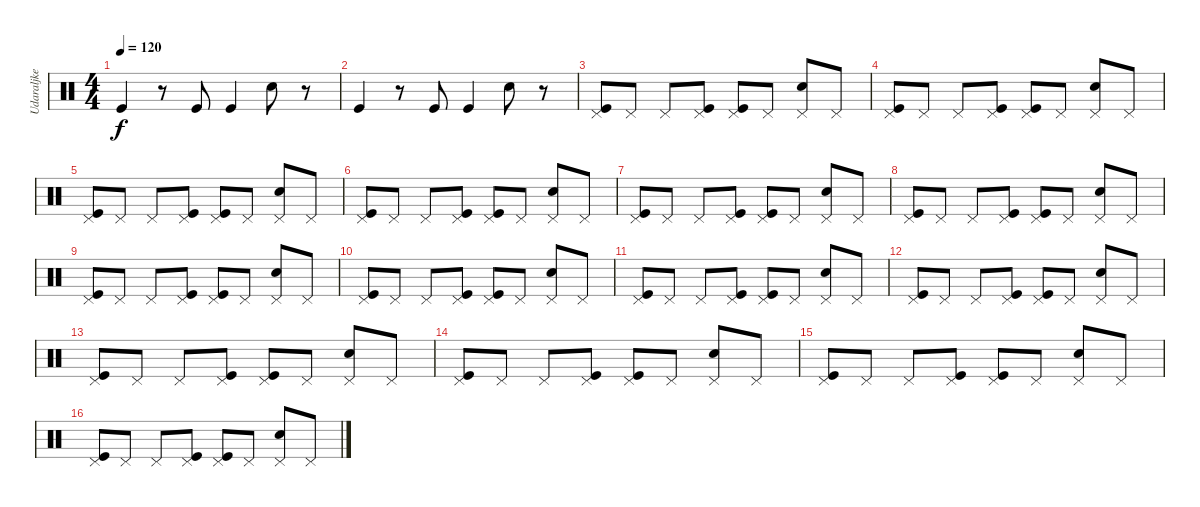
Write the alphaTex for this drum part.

\track ("Udaraljke" "Udaraljke") {instrument percussion}
\staff {score}
\articulation defaults
\ts (4 4)
\tempo 120
\clef neutral
\ks c "Kick (hit)".4{dy f}
r.8 "Kick (hit)".8 "Kick (hit)".4 "Snare (hit) 2".8 r.8 |
"Kick (hit)".4 r.8 "Kick (hit)".8 "Kick (hit)".4 "Snare (hit) 2".8 r.8 |
("Pedal Hi-Hat (hit)" "Kick (hit)").8 "Pedal Hi-Hat (hit)".8 "Pedal Hi-Hat (hit)".8 ("Pedal Hi-Hat (hit)" "Kick (hit)").8 ("Pedal Hi-Hat (hit)" "Kick (hit)").8 "Pedal Hi-Hat (hit)".8 ("Pedal Hi-Hat (hit)" "Snare (hit) 2").8 "Pedal Hi-Hat (hit)".8 |
("Pedal Hi-Hat (hit)" "Kick (hit)").8 "Pedal Hi-Hat (hit)".8 "Pedal Hi-Hat (hit)".8 ("Pedal Hi-Hat (hit)" "Kick (hit)").8 ("Pedal Hi-Hat (hit)" "Kick (hit)").8 "Pedal Hi-Hat (hit)".8 ("Pedal Hi-Hat (hit)" "Snare (hit) 2").8 "Pedal Hi-Hat (hit)".8 |
("Pedal Hi-Hat (hit)" "Kick (hit)").8 "Pedal Hi-Hat (hit)".8 "Pedal Hi-Hat (hit)".8 ("Pedal Hi-Hat (hit)" "Kick (hit)").8 ("Pedal Hi-Hat (hit)" "Kick (hit)").8 "Pedal Hi-Hat (hit)".8 ("Pedal Hi-Hat (hit)" "Snare (hit) 2").8 "Pedal Hi-Hat (hit)".8 |
("Pedal Hi-Hat (hit)" "Kick (hit)").8 "Pedal Hi-Hat (hit)".8 "Pedal Hi-Hat (hit)".8 ("Pedal Hi-Hat (hit)" "Kick (hit)").8 ("Pedal Hi-Hat (hit)" "Kick (hit)").8 "Pedal Hi-Hat (hit)".8 ("Pedal Hi-Hat (hit)" "Snare (hit) 2").8 "Pedal Hi-Hat (hit)".8 |
("Pedal Hi-Hat (hit)" "Kick (hit)").8 "Pedal Hi-Hat (hit)".8 "Pedal Hi-Hat (hit)".8 ("Pedal Hi-Hat (hit)" "Kick (hit)").8 ("Pedal Hi-Hat (hit)" "Kick (hit)").8 "Pedal Hi-Hat (hit)".8 ("Pedal Hi-Hat (hit)" "Snare (hit) 2").8 "Pedal Hi-Hat (hit)".8 |
("Pedal Hi-Hat (hit)" "Kick (hit)").8 "Pedal Hi-Hat (hit)".8 "Pedal Hi-Hat (hit)".8 ("Pedal Hi-Hat (hit)" "Kick (hit)").8 ("Pedal Hi-Hat (hit)" "Kick (hit)").8 "Pedal Hi-Hat (hit)".8 ("Pedal Hi-Hat (hit)" "Snare (hit) 2").8 "Pedal Hi-Hat (hit)".8 |
("Pedal Hi-Hat (hit)" "Kick (hit)").8 "Pedal Hi-Hat (hit)".8 "Pedal Hi-Hat (hit)".8 ("Pedal Hi-Hat (hit)" "Kick (hit)").8 ("Pedal Hi-Hat (hit)" "Kick (hit)").8 "Pedal Hi-Hat (hit)".8 ("Pedal Hi-Hat (hit)" "Snare (hit) 2").8 "Pedal Hi-Hat (hit)".8 |
("Pedal Hi-Hat (hit)" "Kick (hit)").8 "Pedal Hi-Hat (hit)".8 "Pedal Hi-Hat (hit)".8 ("Pedal Hi-Hat (hit)" "Kick (hit)").8 ("Pedal Hi-Hat (hit)" "Kick (hit)").8 "Pedal Hi-Hat (hit)".8 ("Pedal Hi-Hat (hit)" "Snare (hit) 2").8 "Pedal Hi-Hat (hit)".8 |
("Pedal Hi-Hat (hit)" "Kick (hit)").8 "Pedal Hi-Hat (hit)".8 "Pedal Hi-Hat (hit)".8 ("Pedal Hi-Hat (hit)" "Kick (hit)").8 ("Pedal Hi-Hat (hit)" "Kick (hit)").8 "Pedal Hi-Hat (hit)".8 ("Pedal Hi-Hat (hit)" "Snare (hit) 2").8 "Pedal Hi-Hat (hit)".8 |
("Pedal Hi-Hat (hit)" "Kick (hit)").8 "Pedal Hi-Hat (hit)".8 "Pedal Hi-Hat (hit)".8 ("Pedal Hi-Hat (hit)" "Kick (hit)").8 ("Pedal Hi-Hat (hit)" "Kick (hit)").8 "Pedal Hi-Hat (hit)".8 ("Pedal Hi-Hat (hit)" "Snare (hit) 2").8 "Pedal Hi-Hat (hit)".8 |
("Pedal Hi-Hat (hit)" "Kick (hit)").8 "Pedal Hi-Hat (hit)".8 "Pedal Hi-Hat (hit)".8 ("Pedal Hi-Hat (hit)" "Kick (hit)").8 ("Pedal Hi-Hat (hit)" "Kick (hit)").8 "Pedal Hi-Hat (hit)".8 ("Pedal Hi-Hat (hit)" "Snare (hit) 2").8 "Pedal Hi-Hat (hit)".8 |
("Pedal Hi-Hat (hit)" "Kick (hit)").8 "Pedal Hi-Hat (hit)".8 "Pedal Hi-Hat (hit)".8 ("Pedal Hi-Hat (hit)" "Kick (hit)").8 ("Pedal Hi-Hat (hit)" "Kick (hit)").8 "Pedal Hi-Hat (hit)".8 ("Pedal Hi-Hat (hit)" "Snare (hit) 2").8 "Pedal Hi-Hat (hit)".8 |
("Pedal Hi-Hat (hit)" "Kick (hit)").8 "Pedal Hi-Hat (hit)".8 "Pedal Hi-Hat (hit)".8 ("Pedal Hi-Hat (hit)" "Kick (hit)").8 ("Pedal Hi-Hat (hit)" "Kick (hit)").8 "Pedal Hi-Hat (hit)".8 ("Pedal Hi-Hat (hit)" "Snare (hit) 2").8 "Pedal Hi-Hat (hit)".8 |
("Pedal Hi-Hat (hit)" "Kick (hit)").8 "Pedal Hi-Hat (hit)".8 "Pedal Hi-Hat (hit)".8 ("Pedal Hi-Hat (hit)" "Kick (hit)").8 ("Pedal Hi-Hat (hit)" "Kick (hit)").8 "Pedal Hi-Hat (hit)".8 ("Pedal Hi-Hat (hit)" "Snare (hit) 2").8 "Pedal Hi-Hat (hit)".8
